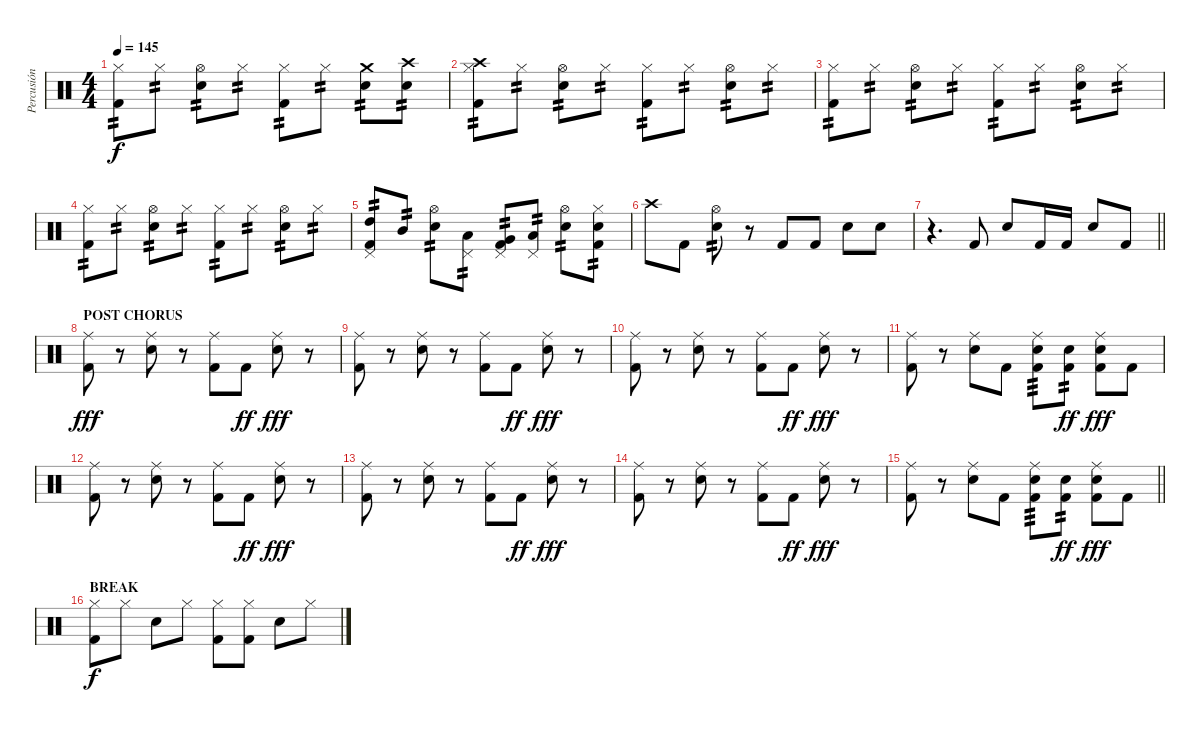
\track ("Percusión" "Percusión") {instrument percussion}
\staff {score}
\articulation defaults
\ts (4 4)
\tempo 145
\clef neutral
\ks c
("Hi-Hat (closed)" "Kick (hit) 2").8{tp 2 dy f} "Hi-Hat (closed)".8{tp 2} ("Hi-Hat (open)" "Snare (hit) 2").8{tp 2} "Hi-Hat (closed)".8{tp 2} ("Hi-Hat (closed)" "Kick (hit) 2").8{tp 2} "Hi-Hat (closed)".8{tp 2} ("Crash medium (hit)" "Snare (hit) 2").8{tp 2} ("Crash high (hit)" "Snare (hit) 2").8{tp 2} |
("Hi-Hat (closed)" "Kick (hit) 2" "Crash high (hit)").8{tp 2} "Hi-Hat (closed)".8{tp 2} ("Hi-Hat (open)" "Snare (hit) 2").8{tp 2} "Hi-Hat (closed)".8{tp 2} ("Hi-Hat (closed)" "Kick (hit) 2").8{tp 2} "Hi-Hat (closed)".8{tp 2} ("Hi-Hat (open)" "Snare (hit) 2").8{tp 2} "Hi-Hat (closed)".8{tp 2} |
("Hi-Hat (closed)" "Kick (hit) 2").8{tp 2} "Hi-Hat (closed)".8{tp 2} ("Hi-Hat (open)" "Snare (hit) 2").8{tp 2} "Hi-Hat (closed)".8{tp 2} ("Hi-Hat (closed)" "Kick (hit) 2").8{tp 2} "Hi-Hat (closed)".8{tp 2} ("Hi-Hat (open)" "Snare (hit) 2").8{tp 2} "Hi-Hat (closed)".8{tp 2} |
("Hi-Hat (closed)" "Kick (hit) 2").8{tp 2} "Hi-Hat (closed)".8{tp 2} ("Hi-Hat (open)" "Snare (hit) 2").8{tp 2} "Hi-Hat (closed)".8{tp 2} ("Hi-Hat (closed)" "Kick (hit) 2").8{tp 2} "Hi-Hat (closed)".8{tp 2} ("Hi-Hat (open)" "Snare (hit) 2").8{tp 2} "Hi-Hat (closed)".8{tp 2} |
("Pedal Hi-Hat (hit)" "High Tom (hit)" "Kick (hit) 2").8{tp 2} "Mid Tom (hit)".8{tp 2} ("Hi-Hat (open)" "Snare (hit) 2").8{tp 2} ("Pedal Hi-Hat (hit)" "Low Tom (hit)").8{tp 2} ("Pedal Hi-Hat (hit)" "Very Low Tom (hit)" "Kick (hit) 2").8{tp 2} ("Pedal Hi-Hat (hit)" "Low Floor Tom (hit)").8{tp 2} ("Hi-Hat (open)" "Snare (hit) 2").8{tp 2} ("Hi-Hat (closed)" "Snare (hit) 2" "Kick (hit) 2").8{tp 2} |
"Crash high (hit)".8 "Kick (hit) 2".8 ("Hi-Hat (open)" "Snare (hit) 2").8{tp 2} r.8 "Kick (hit) 2".8 "Kick (hit) 2".8 "Snare (hit) 2".8 "Snare (hit) 2".8 |
\barLineRight lightlight
r.4{d} "Kick (hit) 2".8 "Snare (hit) 2".8 "Kick (hit) 2".16 "Kick (hit) 2".16 "Snare (hit) 2".8 "Kick (hit) 2".8 |
\section ("" "POST CHORUS")
("Ride (middle)" "Kick (hit) 2").8{dy fff} r.8 ("Ride (middle)" "Snare (hit) 2").8 r.8 ("Ride (middle)" "Kick (hit) 2").8 "Kick (hit) 2".8{dy ff} ("Ride (middle)" "Snare (hit) 2").8{dy fff} r.8 |
("Ride (middle)" "Kick (hit) 2").8 r.8 ("Ride (middle)" "Snare (hit) 2").8 r.8 ("Ride (middle)" "Kick (hit) 2").8 "Kick (hit) 2".8{dy ff} ("Ride (middle)" "Snare (hit) 2").8{dy fff} r.8 |
("Ride (middle)" "Kick (hit) 2").8 r.8 ("Ride (middle)" "Snare (hit) 2").8 r.8 ("Ride (middle)" "Kick (hit) 2").8 "Kick (hit) 2".8{dy ff} ("Ride (middle)" "Snare (hit) 2").8{dy fff} r.8 |
("Ride (middle)" "Kick (hit) 2").8 r.8 ("Ride (middle)" "Snare (hit) 2").8 "Kick (hit) 2".8 ("Ride (middle)" "Snare (hit) 2" "Kick (hit) 2").8{tp 3} ("Snare (hit) 2" "Kick (hit) 2").8{tp 2 dy ff} ("Ride (middle)" "Snare (hit) 2" "Kick (hit) 2").8{dy fff} "Kick (hit) 2".8 |
("Ride (middle)" "Kick (hit) 2").8 r.8 ("Ride (middle)" "Snare (hit) 2").8 r.8 ("Ride (middle)" "Kick (hit) 2").8 "Kick (hit) 2".8{dy ff} ("Ride (middle)" "Snare (hit) 2").8{dy fff} r.8 |
("Ride (middle)" "Kick (hit) 2").8 r.8 ("Ride (middle)" "Snare (hit) 2").8 r.8 ("Ride (middle)" "Kick (hit) 2").8 "Kick (hit) 2".8{dy ff} ("Ride (middle)" "Snare (hit) 2").8{dy fff} r.8 |
("Ride (middle)" "Kick (hit) 2").8 r.8 ("Ride (middle)" "Snare (hit) 2").8 r.8 ("Ride (middle)" "Kick (hit) 2").8 "Kick (hit) 2".8{dy ff} ("Ride (middle)" "Snare (hit) 2").8{dy fff} r.8 |
\barLineRight lightlight
("Ride (middle)" "Kick (hit) 2").8 r.8 ("Ride (middle)" "Snare (hit) 2").8 "Kick (hit) 2".8 ("Ride (middle)" "Snare (hit) 2" "Kick (hit) 2").8{tp 3} ("Snare (hit) 2" "Kick (hit) 2").8{tp 2 dy ff} ("Ride (middle)" "Snare (hit) 2" "Kick (hit) 2").8{dy fff} "Kick (hit) 2".8 |
\section ("" "BREAK")
("Hi-Hat (closed)" "Kick (hit) 2").8{dy f} "Hi-Hat (closed)".8 "Snare (hit) 2".8 "Hi-Hat (closed)".8 ("Hi-Hat (closed)" "Kick (hit) 2").8 ("Hi-Hat (closed)" "Kick (hit) 2").8 "Snare (hit) 2".8 "Hi-Hat (closed)".8
